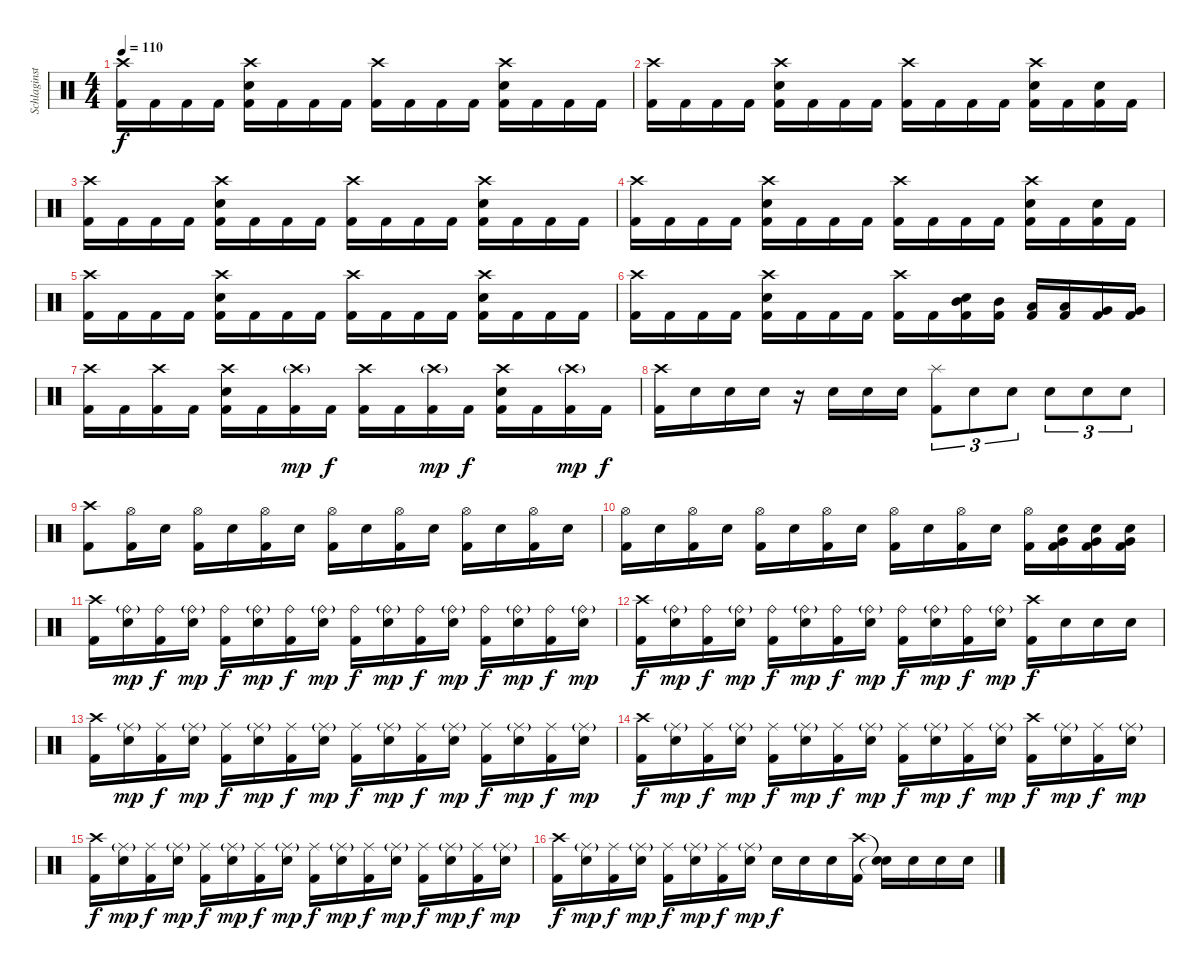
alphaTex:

\track ("Schlaginstrumente - Auswahl" "Schlaginst") {instrument percussion}
\staff {score}
\articulation defaults
\ts (4 4)
\tempo 110
\clef neutral
\ks c
("Crash high (hit)" "Kick (hit) 2").16{dy f} "Kick (hit) 2".16 "Kick (hit) 2".16 "Kick (hit) 2".16 ("Crash high (hit)" "Snare (hit) 2" "Kick (hit) 2").16 "Kick (hit) 2".16 "Kick (hit) 2".16 "Kick (hit) 2".16 ("Crash high (hit)" "Kick (hit) 2").16 "Kick (hit) 2".16 "Kick (hit) 2".16 "Kick (hit) 2".16 ("Crash high (hit)" "Snare (hit) 2" "Kick (hit) 2").16 "Kick (hit) 2".16 "Kick (hit) 2".16 "Kick (hit) 2".16 |
("Crash high (hit)" "Kick (hit) 2").16 "Kick (hit) 2".16 "Kick (hit) 2".16 "Kick (hit) 2".16 ("Crash high (hit)" "Snare (hit) 2" "Kick (hit) 2").16 "Kick (hit) 2".16 "Kick (hit) 2".16 "Kick (hit) 2".16 ("Crash high (hit)" "Kick (hit) 2").16 "Kick (hit) 2".16 "Kick (hit) 2".16 "Kick (hit) 2".16 ("Crash high (hit)" "Snare (hit) 2" "Kick (hit) 2").16 "Kick (hit) 2".16 ("Snare (hit) 2" "Kick (hit) 2").16 "Kick (hit) 2".16 |
("Crash high (hit)" "Kick (hit) 2").16 "Kick (hit) 2".16 "Kick (hit) 2".16 "Kick (hit) 2".16 ("Crash high (hit)" "Snare (hit) 2" "Kick (hit) 2").16 "Kick (hit) 2".16 "Kick (hit) 2".16 "Kick (hit) 2".16 ("Crash high (hit)" "Kick (hit) 2").16 "Kick (hit) 2".16 "Kick (hit) 2".16 "Kick (hit) 2".16 ("Crash high (hit)" "Snare (hit) 2" "Kick (hit) 2").16 "Kick (hit) 2".16 "Kick (hit) 2".16 "Kick (hit) 2".16 |
("Crash high (hit)" "Kick (hit) 2").16 "Kick (hit) 2".16 "Kick (hit) 2".16 "Kick (hit) 2".16 ("Crash high (hit)" "Snare (hit) 2" "Kick (hit) 2").16 "Kick (hit) 2".16 "Kick (hit) 2".16 "Kick (hit) 2".16 ("Crash high (hit)" "Kick (hit) 2").16 "Kick (hit) 2".16 "Kick (hit) 2".16 "Kick (hit) 2".16 ("Crash high (hit)" "Snare (hit) 2" "Kick (hit) 2").16 "Kick (hit) 2".16 ("Snare (hit) 2" "Kick (hit) 2").16 "Kick (hit) 2".16 |
("Crash high (hit)" "Kick (hit) 2").16 "Kick (hit) 2".16 "Kick (hit) 2".16 "Kick (hit) 2".16 ("Crash high (hit)" "Snare (hit) 2" "Kick (hit) 2").16 "Kick (hit) 2".16 "Kick (hit) 2".16 "Kick (hit) 2".16 ("Crash high (hit)" "Kick (hit) 2").16 "Kick (hit) 2".16 "Kick (hit) 2".16 "Kick (hit) 2".16 ("Crash high (hit)" "Snare (hit) 2" "Kick (hit) 2").16 "Kick (hit) 2".16 "Kick (hit) 2".16 "Kick (hit) 2".16 |
("Crash high (hit)" "Kick (hit) 2").16 "Kick (hit) 2".16 "Kick (hit) 2".16 "Kick (hit) 2".16 ("Crash high (hit)" "Snare (hit) 2" "Kick (hit) 2").16 "Kick (hit) 2".16 "Kick (hit) 2".16 "Kick (hit) 2".16 ("Crash high (hit)" "Kick (hit) 2").16 "Kick (hit) 2".16 ("Mid Tom (hit)" "Snare (hit) 2" "Kick (hit) 2").16 ("Mid Tom (hit)" "Kick (hit) 2").16 ("Low Tom (hit)" "Kick (hit) 2").16 ("Low Tom (hit)" "Kick (hit) 2").16 ("Very Low Tom (hit)" "Kick (hit) 2").16 ("Very Low Tom (hit)" "Kick (hit) 2").16 |
("Crash high (hit)" "Kick (hit) 2").16 "Kick (hit) 2".16 ("Crash high (hit)" "Kick (hit) 2").16 "Kick (hit) 2".16 ("Crash high (hit)" "Snare (hit) 2" "Kick (hit) 2").16 "Kick (hit) 2".16 ("Crash high (hit)"{g} "Kick (hit) 2").16{dy mp} "Kick (hit) 2".16{dy f} ("Crash high (hit)" "Kick (hit) 2").16 "Kick (hit) 2".16 ("Crash high (hit)"{g} "Kick (hit) 2").16{dy mp} "Kick (hit) 2".16{dy f} ("Crash high (hit)" "Snare (hit) 2" "Kick (hit) 2").16 "Kick (hit) 2".16 ("Crash high (hit)"{g} "Kick (hit) 2").16{dy mp} "Kick (hit) 2".16{dy f} |
("Crash high (hit)" "Kick (hit) 2").16 "Snare (hit) 2".16 "Snare (hit) 2".16 "Snare (hit) 2".16 r.16 "Snare (hit) 2".16 "Snare (hit) 2".16 "Snare (hit) 2".16 ("Splash (hit)" "Kick (hit) 2").8{tu (3 2)} "Snare (hit) 2".8{tu (3 2)} "Snare (hit) 2".8{tu (3 2)} "Snare (hit) 2".8{tu (3 2)} "Snare (hit) 2".8{tu (3 2)} "Snare (hit) 2".8{tu (3 2)} |
("Crash high (hit)" "Kick (hit) 2").8 ("Hi-Hat (open)" "Kick (hit) 2").16 "Snare (hit) 2".16 ("Hi-Hat (open)" "Kick (hit) 2").16 "Snare (hit) 2".16 ("Hi-Hat (open)" "Kick (hit) 2").16 "Snare (hit) 2".16 ("Hi-Hat (open)" "Kick (hit) 2").16 "Snare (hit) 2".16 ("Hi-Hat (open)" "Kick (hit) 2").16 "Snare (hit) 2".16 ("Hi-Hat (open)" "Kick (hit) 2").16 "Snare (hit) 2".16 ("Hi-Hat (open)" "Kick (hit) 2").16 "Snare (hit) 2".16 |
("Hi-Hat (open)" "Kick (hit) 2").16 "Snare (hit) 2".16 ("Hi-Hat (open)" "Kick (hit) 2").16 "Snare (hit) 2".16 ("Hi-Hat (open)" "Kick (hit) 2").16 "Snare (hit) 2".16 ("Hi-Hat (open)" "Kick (hit) 2").16 "Snare (hit) 2".16 ("Hi-Hat (open)" "Kick (hit) 2").16 "Snare (hit) 2".16 ("Hi-Hat (open)" "Kick (hit) 2").16 "Snare (hit) 2".16 ("Hi-Hat (open)" "Kick (hit) 2").16 ("Snare (hit) 2" "Very Low Tom (hit)" "Kick (hit) 2").16 ("Snare (hit) 2" "Very Low Tom (hit)" "Kick (hit) 2").16 ("Snare (hit) 2" "Very Low Tom (hit)" "Kick (hit) 2").16 |
("Crash high (hit)" "Kick (hit) 2").16 ("Ride (bell)"{g} "Snare (hit) 2").16{dy mp} ("Ride (bell)" "Kick (hit) 2").16{dy f} ("Ride (bell)"{g} "Snare (hit) 2").16{dy mp} ("Ride (bell)" "Kick (hit) 2").16{dy f} ("Ride (bell)"{g} "Snare (hit) 2").16{dy mp} ("Ride (bell)" "Kick (hit) 2").16{dy f} ("Ride (bell)"{g} "Snare (hit) 2").16{dy mp} ("Ride (bell)" "Kick (hit) 2").16{dy f} ("Ride (bell)"{g} "Snare (hit) 2").16{dy mp} ("Ride (bell)" "Kick (hit) 2").16{dy f} ("Ride (bell)"{g} "Snare (hit) 2").16{dy mp} ("Ride (bell)" "Kick (hit) 2").16{dy f} ("Ride (bell)"{g} "Snare (hit) 2").16{dy mp} ("Ride (bell)" "Kick (hit) 2").16{dy f} ("Ride (bell)"{g} "Snare (hit) 2").16{dy mp} |
("Crash high (hit)" "Kick (hit) 2").16{dy f} ("Ride (bell)"{g} "Snare (hit) 2").16{dy mp} ("Ride (bell)" "Kick (hit) 2").16{dy f} ("Ride (bell)"{g} "Snare (hit) 2").16{dy mp} ("Ride (bell)" "Kick (hit) 2").16{dy f} ("Ride (bell)"{g} "Snare (hit) 2").16{dy mp} ("Ride (bell)" "Kick (hit) 2").16{dy f} ("Ride (bell)"{g} "Snare (hit) 2").16{dy mp} ("Ride (bell)" "Kick (hit) 2").16{dy f} ("Ride (bell)"{g} "Snare (hit) 2").16{dy mp} ("Ride (bell)" "Kick (hit) 2").16{dy f} ("Ride (bell)"{g} "Snare (hit) 2").16{dy mp} ("Crash high (hit)" "Kick (hit) 2").16{dy f} "Snare (hit) 2".16 "Snare (hit) 2".16 "Snare (hit) 2".16 |
("Crash high (hit)" "Kick (hit) 2").16 ("Ride (middle)"{g} "Snare (hit) 2").16{dy mp} ("Ride (middle)" "Kick (hit) 2").16{dy f} ("Ride (middle)"{g} "Snare (hit) 2").16{dy mp} ("Ride (middle)" "Kick (hit) 2").16{dy f} ("Ride (middle)"{g} "Snare (hit) 2").16{dy mp} ("Ride (middle)" "Kick (hit) 2").16{dy f} ("Ride (middle)"{g} "Snare (hit) 2").16{dy mp} ("Ride (middle)" "Kick (hit) 2").16{dy f} ("Ride (middle)"{g} "Snare (hit) 2").16{dy mp} ("Ride (middle)" "Kick (hit) 2").16{dy f} ("Ride (middle)"{g} "Snare (hit) 2").16{dy mp} ("Ride (middle)" "Kick (hit) 2").16{dy f} ("Ride (middle)"{g} "Snare (hit) 2").16{dy mp} ("Ride (middle)" "Kick (hit) 2").16{dy f} ("Ride (middle)"{g} "Snare (hit) 2").16{dy mp} |
("Crash high (hit)" "Kick (hit) 2").16{dy f} ("Ride (middle)"{g} "Snare (hit) 2").16{dy mp} ("Ride (middle)" "Kick (hit) 2").16{dy f} ("Ride (middle)"{g} "Snare (hit) 2").16{dy mp} ("Ride (middle)" "Kick (hit) 2").16{dy f} ("Ride (middle)"{g} "Snare (hit) 2").16{dy mp} ("Ride (middle)" "Kick (hit) 2").16{dy f} ("Ride (middle)"{g} "Snare (hit) 2").16{dy mp} ("Ride (middle)" "Kick (hit) 2").16{dy f} ("Ride (middle)"{g} "Snare (hit) 2").16{dy mp} ("Ride (middle)" "Kick (hit) 2").16{dy f} ("Ride (middle)"{g} "Snare (hit) 2").16{dy mp} ("Crash high (hit)" "Kick (hit) 2").16{dy f} ("Ride (middle)"{g} "Snare (hit) 2").16{dy mp} ("Ride (middle)" "Kick (hit) 2").16{dy f} ("Ride (middle)"{g} "Snare (hit) 2").16{dy mp} |
("Crash high (hit)" "Kick (hit) 2").16{dy f} ("Ride (middle)"{g} "Snare (hit) 2").16{dy mp} ("Ride (middle)" "Kick (hit) 2").16{dy f} ("Ride (middle)"{g} "Snare (hit) 2").16{dy mp} ("Ride (middle)" "Kick (hit) 2").16{dy f} ("Ride (middle)"{g} "Snare (hit) 2").16{dy mp} ("Ride (middle)" "Kick (hit) 2").16{dy f} ("Ride (middle)"{g} "Snare (hit) 2").16{dy mp} ("Ride (middle)" "Kick (hit) 2").16{dy f} ("Ride (middle)"{g} "Snare (hit) 2").16{dy mp} ("Ride (middle)" "Kick (hit) 2").16{dy f} ("Ride (middle)"{g} "Snare (hit) 2").16{dy mp} ("Ride (middle)" "Kick (hit) 2").16{dy f} ("Ride (middle)"{g} "Snare (hit) 2").16{dy mp} ("Ride (middle)" "Kick (hit) 2").16{dy f} ("Ride (middle)"{g} "Snare (hit) 2").16{dy mp} |
("Crash high (hit)" "Kick (hit) 2").16{dy f} ("Ride (middle)"{g} "Snare (hit) 2").16{dy mp} ("Ride (middle)" "Kick (hit) 2").16{dy f} ("Ride (middle)"{g} "Snare (hit) 2").16{dy mp} ("Ride (middle)" "Kick (hit) 2").16{dy f} ("Ride (middle)"{g} "Snare (hit) 2").16{dy mp} ("Ride (middle)" "Kick (hit) 2").16{dy f} ("Ride (middle)"{g} "Snare (hit) 2").16{dy mp} "Snare (hit) 2".16{dy f} "Snare (hit) 2".16 "Snare (hit) 2".16 ("Crash high (hit)" "Kick (hit) 2").16 ("Snare (hit)"{t} "Snare (hit)"{t}).16 "Snare (hit) 2".16 "Snare (hit) 2".16 "Snare (hit) 2".16
